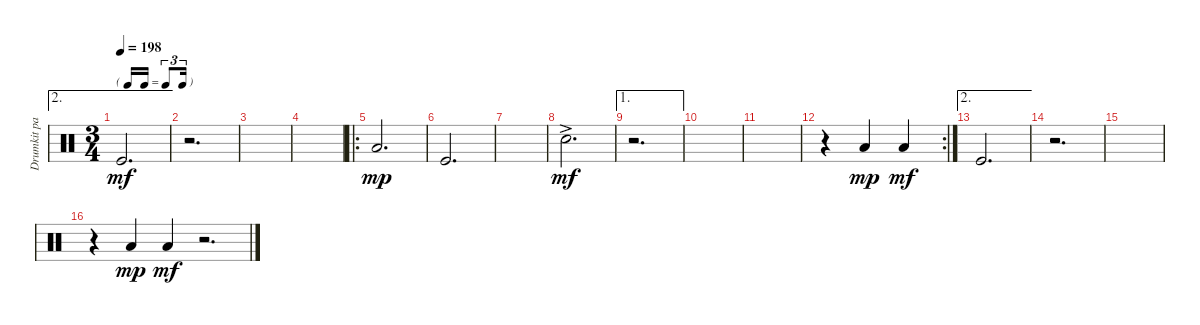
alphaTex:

\track ("Drumkit part 1" "Drumkit pa") {instrument percussion}
\staff {score}
\articulation defaults
\ae 2
\ts (3 4)
\tf triplet16th
\tempo 198
\clef neutral
\ks c "Kick (hit)".2{d dy mf}
|
r.2{d} |
|
|
\ro "Low Floor Tom (hit)".2{d dy mp}
|
"Kick (hit)".2{d} |
|
"Snare (hit) 2"{ac}.2{d dy mf} |
\ae 1
r.2{d} |
|
|
\rc 2
r.4 "Low Floor Tom (hit)".4{dy mp} "Low Floor Tom (hit)".4{dy mf} |
\ae 2 "Kick (hit)".2{d}
|
r.2{d} |
|
r.4 "Low Floor Tom (hit)".4{dy mp} "Low Floor Tom (hit)".4{dy mf} r.2{d}
